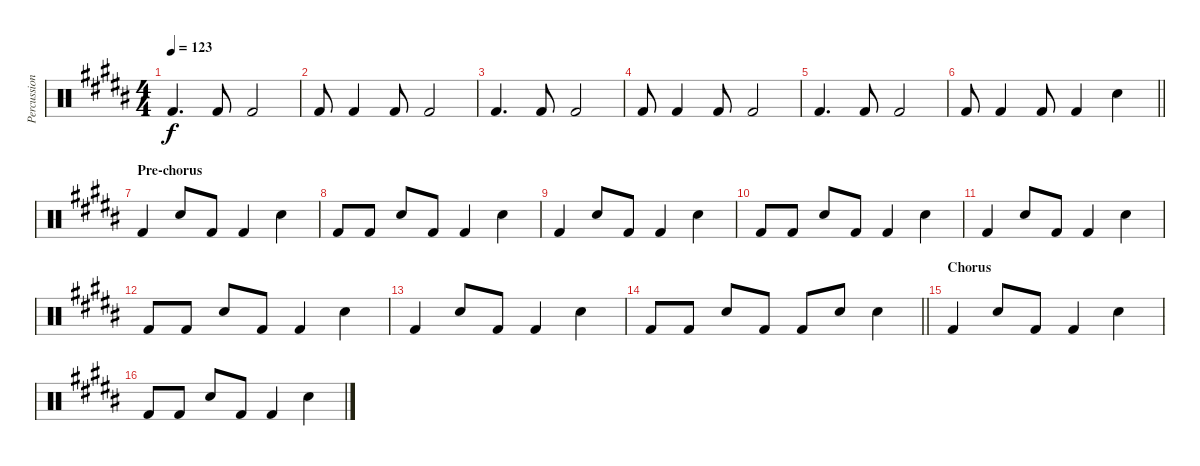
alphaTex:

\track ("Percussion" "Percussion") {instrument percussion}
\staff {score}
\articulation defaults
\ts (4 4)
\tempo 123
\clef neutral
\ks g#minor "Kick (hit) 2".4{d dy f} "Kick (hit) 2".8 "Kick (hit) 2".2
|
"Kick (hit) 2".8 "Kick (hit) 2".4 "Kick (hit) 2".8 "Kick (hit) 2".2 |
"Kick (hit) 2".4{d} "Kick (hit) 2".8 "Kick (hit) 2".2 |
"Kick (hit) 2".8 "Kick (hit) 2".4 "Kick (hit) 2".8 "Kick (hit) 2".2 |
"Kick (hit) 2".4{d} "Kick (hit) 2".8 "Kick (hit) 2".2 |
\barLineRight lightlight "Kick (hit) 2".8 "Kick (hit) 2".4 "Kick (hit) 2".8 "Kick (hit) 2".4 "Hand Clap (hit)".4
|
\section ("" "Pre-chorus")
"Kick (hit) 2".4 "Hand Clap (hit)".8 "Kick (hit) 2".8 "Kick (hit) 2".4 "Hand Clap (hit)".4 |
"Kick (hit) 2".8 "Kick (hit) 2".8 "Hand Clap (hit)".8 "Kick (hit) 2".8 "Kick (hit) 2".4 "Hand Clap (hit)".4 |
"Kick (hit) 2".4 "Hand Clap (hit)".8 "Kick (hit) 2".8 "Kick (hit) 2".4 "Hand Clap (hit)".4 |
"Kick (hit) 2".8 "Kick (hit) 2".8 "Hand Clap (hit)".8 "Kick (hit) 2".8 "Kick (hit) 2".4 "Hand Clap (hit)".4 |
"Kick (hit) 2".4 "Hand Clap (hit)".8 "Kick (hit) 2".8 "Kick (hit) 2".4 "Hand Clap (hit)".4 |
"Kick (hit) 2".8 "Kick (hit) 2".8 "Hand Clap (hit)".8 "Kick (hit) 2".8 "Kick (hit) 2".4 "Hand Clap (hit)".4 |
"Kick (hit) 2".4 "Hand Clap (hit)".8 "Kick (hit) 2".8 "Kick (hit) 2".4 "Hand Clap (hit)".4 |
\barLineRight lightlight "Kick (hit) 2".8 "Kick (hit) 2".8 "Hand Clap (hit)".8 "Kick (hit) 2".8 "Kick (hit) 2".8 "Hand Clap (hit)".8 "Hand Clap (hit)".4
|
\section ("" "Chorus")
"Kick (hit) 2".4 "Hand Clap (hit)".8 "Kick (hit) 2".8 "Kick (hit) 2".4 "Hand Clap (hit)".4 |
"Kick (hit) 2".8 "Kick (hit) 2".8 "Hand Clap (hit)".8 "Kick (hit) 2".8 "Kick (hit) 2".4 "Hand Clap (hit)".4
